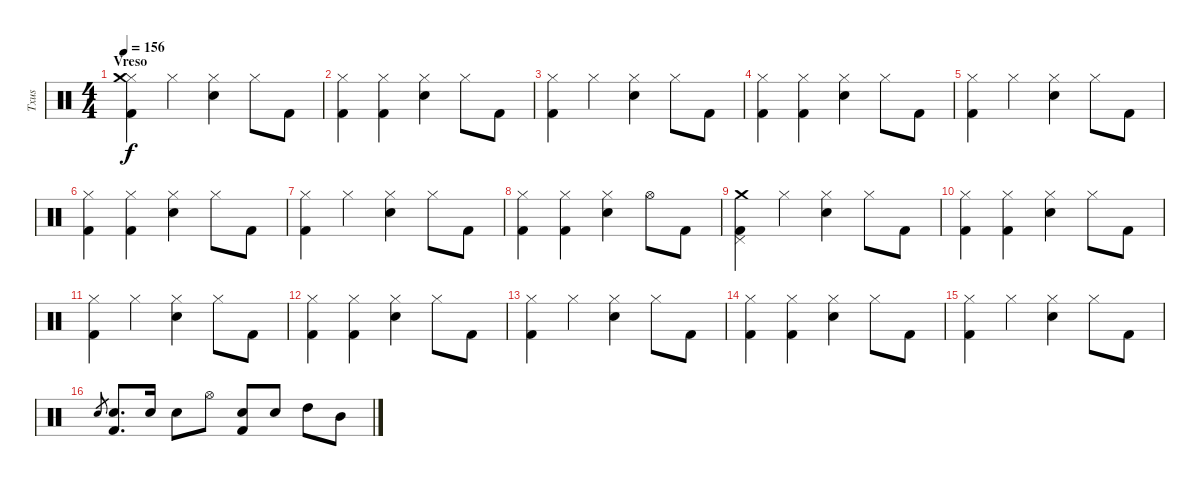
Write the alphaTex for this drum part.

\track ("Txus" "Txus") {instrument percussion}
\staff {score}
\articulation defaults
\ts (4 4)
\section ("" "Vreso")
\tempo 156
\clef neutral
\ks c
("Hi-Hat (closed)" "Crash medium (hit)" "Kick (hit) 2").4{dy f} "Hi-Hat (closed)".4 ("Snare (hit) 2" "Hi-Hat (closed)").4 "Hi-Hat (closed)".8 "Kick (hit) 2".8 |
("Kick (hit) 2" "Hi-Hat (closed)").4 ("Hi-Hat (closed)" "Kick (hit) 2").4 ("Hi-Hat (closed)" "Snare (hit) 2").4 "Hi-Hat (closed)".8 "Kick (hit) 2".8 |
("Hi-Hat (closed)" "Kick (hit) 2").4 "Hi-Hat (closed)".4 ("Snare (hit) 2" "Hi-Hat (closed)").4 "Hi-Hat (closed)".8 "Kick (hit) 2".8 |
("Kick (hit) 2" "Hi-Hat (closed)").4 ("Hi-Hat (closed)" "Kick (hit) 2").4 ("Hi-Hat (closed)" "Snare (hit) 2").4 "Hi-Hat (closed)".8 "Kick (hit) 2".8 |
("Hi-Hat (closed)" "Kick (hit) 2").4 "Hi-Hat (closed)".4 ("Snare (hit) 2" "Hi-Hat (closed)").4 "Hi-Hat (closed)".8 "Kick (hit) 2".8 |
("Kick (hit) 2" "Hi-Hat (closed)").4 ("Hi-Hat (closed)" "Kick (hit) 2").4 ("Hi-Hat (closed)" "Snare (hit) 2").4 "Hi-Hat (closed)".8 "Kick (hit) 2".8 |
("Hi-Hat (closed)" "Kick (hit) 2").4 "Hi-Hat (closed)".4 ("Snare (hit) 2" "Hi-Hat (closed)").4 "Hi-Hat (closed)".8 "Kick (hit) 2".8 |
("Kick (hit) 2" "Hi-Hat (closed)").4 ("Hi-Hat (closed)" "Kick (hit) 2").4 ("Hi-Hat (closed)" "Snare (hit) 2").4 "Hi-Hat (open)".8 "Kick (hit) 2".8 |
("Crash medium (hit)" "Pedal Hi-Hat (hit)" "Kick (hit) 2").4 "Hi-Hat (closed)".4 ("Snare (hit) 2" "Hi-Hat (closed)").4 "Hi-Hat (closed)".8 "Kick (hit) 2".8 |
("Kick (hit) 2" "Hi-Hat (closed)").4 ("Hi-Hat (closed)" "Kick (hit) 2").4 ("Hi-Hat (closed)" "Snare (hit) 2").4 "Hi-Hat (closed)".8 "Kick (hit) 2".8 |
("Hi-Hat (closed)" "Kick (hit) 2").4 "Hi-Hat (closed)".4 ("Snare (hit) 2" "Hi-Hat (closed)").4 "Hi-Hat (closed)".8 "Kick (hit) 2".8 |
("Kick (hit) 2" "Hi-Hat (closed)").4 ("Hi-Hat (closed)" "Kick (hit) 2").4 ("Hi-Hat (closed)" "Snare (hit) 2").4 "Hi-Hat (closed)".8 "Kick (hit) 2".8 |
("Hi-Hat (closed)" "Kick (hit) 2").4 "Hi-Hat (closed)".4 ("Snare (hit) 2" "Hi-Hat (closed)").4 "Hi-Hat (closed)".8 "Kick (hit) 2".8 |
("Kick (hit) 2" "Hi-Hat (closed)").4 ("Hi-Hat (closed)" "Kick (hit) 2").4 ("Hi-Hat (closed)" "Snare (hit) 2").4 "Hi-Hat (closed)".8 "Kick (hit) 2".8 |
("Hi-Hat (closed)" "Kick (hit) 2").4 "Hi-Hat (closed)".4 ("Snare (hit) 2" "Hi-Hat (closed)").4 "Hi-Hat (closed)".8 "Kick (hit) 2".8 |
"Snare (hit) 2".8{gr} ("Kick (hit) 2" "Snare (hit) 2").8{d} "Snare (hit) 2".16 "Snare (hit) 2".8 "Hi-Hat (open)".8 ("Kick (hit) 2" "Snare (hit) 2").8 "Snare (hit) 2".8 "High Tom (hit)".8 "Mid Tom (hit)".8
